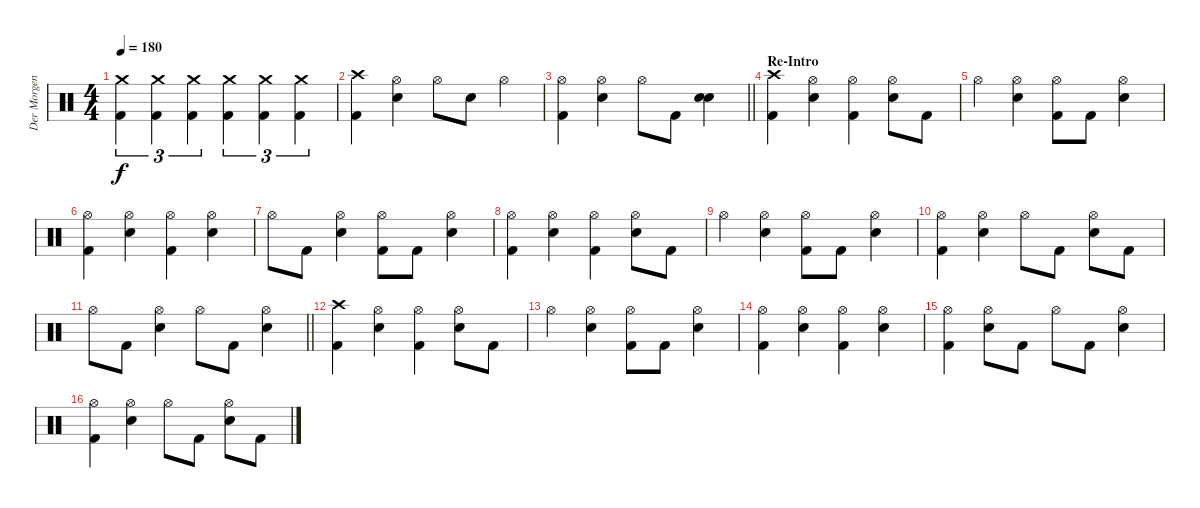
\track ("Der Morgenstern" "Der Morgen") {instrument percussion}
\staff {score}
\articulation defaults
\ts (4 4)
\tempo 180
\clef neutral
\ks c
("Crash medium (hit)" "Kick (hit) 2").4{tu (3 2) dy f} ("Crash medium (hit)" "Kick (hit) 2").4{tu (3 2)} ("Crash medium (hit)" "Kick (hit) 2").4{tu (3 2)} ("Crash medium (hit)" "Kick (hit) 2").4{tu (3 2)} ("Crash medium (hit)" "Kick (hit) 2").4{tu (3 2)} ("Crash medium (hit)" "Kick (hit) 2").4{tu (3 2)} |
("Crash high (hit)" "Kick (hit) 2").4 ("Hi-Hat (open)" "Electric Snare (hit)").4 "Hi-Hat (open)".8 "Electric Snare (hit)".8 "Hi-Hat (open)".4 |
\barLineRight lightlight
("Hi-Hat (open)" "Kick (hit) 2").4 ("Hi-Hat (open)" "Electric Snare (hit)").4 "Hi-Hat (open)".8 "Kick (hit) 2".8 ("Electric Snare (hit)" "Electric Snare (hit)").4 |
\section ("" "Re-Intro")
("Crash high (hit)" "Kick (hit) 2").4 ("Hi-Hat (open)" "Electric Snare (hit)").4 ("Hi-Hat (open)" "Kick (hit) 2").4 ("Hi-Hat (open)" "Electric Snare (hit)").8 "Kick (hit) 2".8 |
"Hi-Hat (open)".4 ("Hi-Hat (open)" "Electric Snare (hit)").4 ("Hi-Hat (open)" "Kick (hit) 2").8 "Kick (hit) 2".8 ("Hi-Hat (open)" "Electric Snare (hit)").4 |
("Hi-Hat (open)" "Kick (hit) 2").4 ("Hi-Hat (open)" "Electric Snare (hit)").4 ("Hi-Hat (open)" "Kick (hit) 2").4 ("Hi-Hat (open)" "Electric Snare (hit)").4 |
"Hi-Hat (open)".8 "Kick (hit) 2".8 ("Hi-Hat (open)" "Electric Snare (hit)").4 ("Hi-Hat (open)" "Kick (hit) 2").8 "Kick (hit) 2".8 ("Hi-Hat (open)" "Electric Snare (hit)").4 |
("Hi-Hat (open)" "Kick (hit) 2").4 ("Hi-Hat (open)" "Electric Snare (hit)").4 ("Hi-Hat (open)" "Kick (hit) 2").4 ("Hi-Hat (open)" "Electric Snare (hit)").8 "Kick (hit) 2".8 |
"Hi-Hat (open)".4 ("Hi-Hat (open)" "Electric Snare (hit)").4 ("Hi-Hat (open)" "Kick (hit) 2").8 "Kick (hit) 2".8 ("Hi-Hat (open)" "Electric Snare (hit)").4 |
("Hi-Hat (open)" "Kick (hit) 2").4 ("Hi-Hat (open)" "Electric Snare (hit)").4 "Hi-Hat (open)".8 "Kick (hit) 2".8 ("Hi-Hat (open)" "Electric Snare (hit)").8 "Kick (hit) 2".8 |
\barLineRight lightlight "Hi-Hat (open)".8 "Kick (hit) 2".8
("Hi-Hat (open)" "Electric Snare (hit)").4 "Hi-Hat (open)".8 "Kick (hit) 2".8 ("Hi-Hat (open)" "Electric Snare (hit)").4 |
("Crash high (hit)" "Kick (hit) 2").4 ("Hi-Hat (open)" "Electric Snare (hit)").4 ("Hi-Hat (open)" "Kick (hit) 2").4 ("Hi-Hat (open)" "Electric Snare (hit)").8 "Kick (hit) 2".8 |
"Hi-Hat (open)".4 ("Hi-Hat (open)" "Electric Snare (hit)").4 ("Hi-Hat (open)" "Kick (hit) 2").8 "Kick (hit) 2".8 ("Hi-Hat (open)" "Electric Snare (hit)").4 |
("Hi-Hat (open)" "Kick (hit) 2").4 ("Hi-Hat (open)" "Electric Snare (hit)").4 ("Hi-Hat (open)" "Kick (hit) 2").4 ("Hi-Hat (open)" "Electric Snare (hit)").4 |
("Hi-Hat (open)" "Kick (hit) 2").4 ("Hi-Hat (open)" "Electric Snare (hit)").8 "Kick (hit) 2".8 "Hi-Hat (open)".8 "Kick (hit) 2".8 ("Hi-Hat (open)" "Electric Snare (hit)").4 |
("Hi-Hat (open)" "Kick (hit) 2").4 ("Hi-Hat (open)" "Electric Snare (hit)").4 "Hi-Hat (open)".8 "Kick (hit) 2".8 ("Hi-Hat (open)" "Electric Snare (hit)").8 "Kick (hit) 2".8
